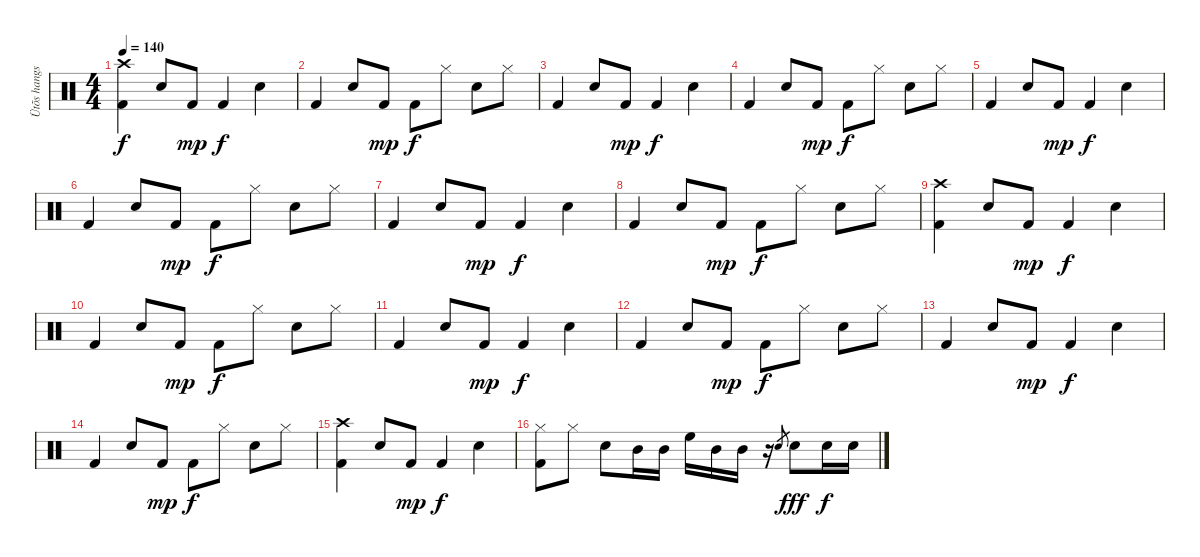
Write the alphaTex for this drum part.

\track ("Ütõs hangszer" "Ütõs hangs") {instrument percussion}
\staff {score}
\articulation defaults
\ts (4 4)
\tempo 140
\clef neutral
\ks c
("Kick (hit) 2" "Crash high (hit)").4{dy f} "Electric Snare (hit)".8 "Kick (hit) 2".8{dy mp} "Kick (hit) 2".4{dy f} "Electric Snare (hit)".4 |
"Kick (hit) 2".4 "Electric Snare (hit)".8 "Kick (hit) 2".8{dy mp} "Kick (hit) 2".8{dy f} "Hi-Hat (closed)".8 "Electric Snare (hit)".8 "Hi-Hat (closed)".8 |
"Kick (hit) 2".4 "Electric Snare (hit)".8 "Kick (hit) 2".8{dy mp} "Kick (hit) 2".4{dy f} "Electric Snare (hit)".4 |
"Kick (hit) 2".4 "Electric Snare (hit)".8 "Kick (hit) 2".8{dy mp} "Kick (hit) 2".8{dy f} "Hi-Hat (closed)".8 "Electric Snare (hit)".8 "Hi-Hat (closed)".8 |
"Kick (hit) 2".4 "Electric Snare (hit)".8 "Kick (hit) 2".8{dy mp} "Kick (hit) 2".4{dy f} "Electric Snare (hit)".4 |
"Kick (hit) 2".4 "Electric Snare (hit)".8 "Kick (hit) 2".8{dy mp} "Kick (hit) 2".8{dy f} "Hi-Hat (closed)".8 "Electric Snare (hit)".8 "Hi-Hat (closed)".8 |
"Kick (hit) 2".4 "Electric Snare (hit)".8 "Kick (hit) 2".8{dy mp} "Kick (hit) 2".4{dy f} "Electric Snare (hit)".4 |
"Kick (hit) 2".4 "Electric Snare (hit)".8 "Kick (hit) 2".8{dy mp} "Kick (hit) 2".8{dy f} "Hi-Hat (closed)".8 "Electric Snare (hit)".8 "Hi-Hat (closed)".8 |
("Kick (hit) 2" "Crash high (hit)").4 "Electric Snare (hit)".8 "Kick (hit) 2".8{dy mp} "Kick (hit) 2".4{dy f} "Electric Snare (hit)".4 |
"Kick (hit) 2".4 "Electric Snare (hit)".8 "Kick (hit) 2".8{dy mp} "Kick (hit) 2".8{dy f} "Hi-Hat (closed)".8 "Electric Snare (hit)".8 "Hi-Hat (closed)".8 |
"Kick (hit) 2".4 "Electric Snare (hit)".8 "Kick (hit) 2".8{dy mp} "Kick (hit) 2".4{dy f} "Electric Snare (hit)".4 |
"Kick (hit) 2".4 "Electric Snare (hit)".8 "Kick (hit) 2".8{dy mp} "Kick (hit) 2".8{dy f} "Hi-Hat (closed)".8 "Electric Snare (hit)".8 "Hi-Hat (closed)".8 |
"Kick (hit) 2".4 "Electric Snare (hit)".8 "Kick (hit) 2".8{dy mp} "Kick (hit) 2".4{dy f} "Electric Snare (hit)".4 |
"Kick (hit) 2".4 "Electric Snare (hit)".8 "Kick (hit) 2".8{dy mp} "Kick (hit) 2".8{dy f} "Hi-Hat (closed)".8 "Electric Snare (hit)".8 "Hi-Hat (closed)".8 |
("Kick (hit) 2" "Crash high (hit)").4 "Electric Snare (hit)".8 "Kick (hit) 2".8{dy mp} "Kick (hit) 2".4{dy f} "Electric Snare (hit)".4 |
("Kick (hit) 2" "Hi-Hat (closed)").8 "Hi-Hat (closed)".8 "Electric Snare (hit)".8 "Mid Tom (hit)".16 "Mid Tom (hit)".16 "High Floor Tom (hit)".16 "Mid Tom (hit)".16 "Mid Tom (hit)".16 r.16 "Electric Snare (hit)".8{gr} "Electric Snare (hit)".8{dy fff} "Electric Snare (hit)".16{dy f} "Electric Snare (hit)".16
